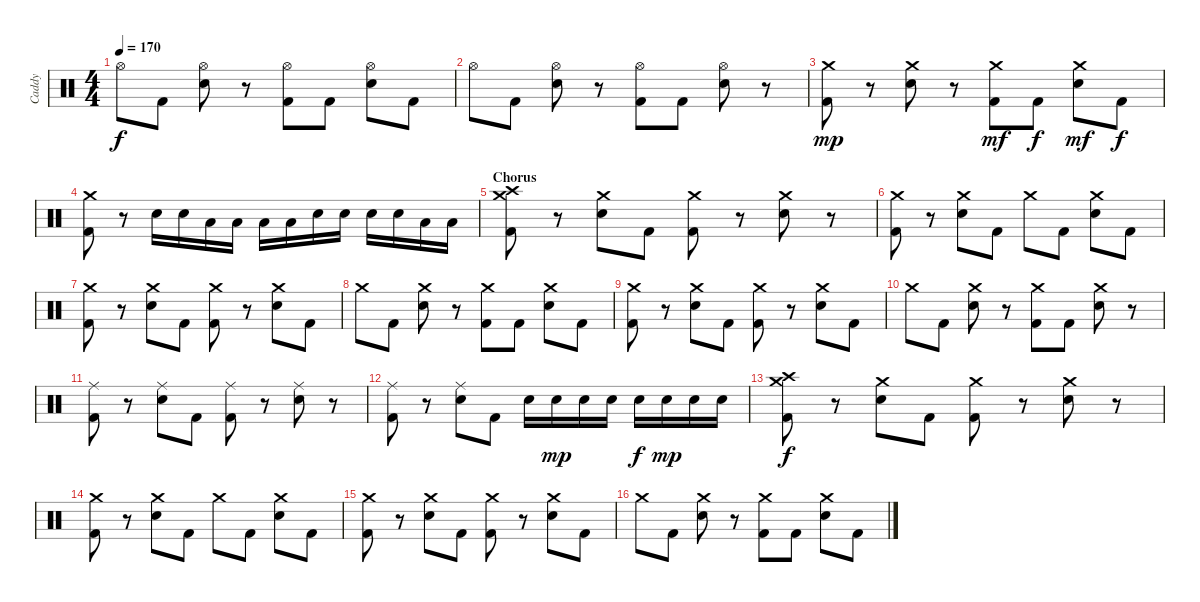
\track ("Caddy" "Caddy") {instrument percussion}
\staff {score}
\articulation defaults
\ts (4 4)
\tempo 170
\clef neutral
\ks c "Hi-Hat (open)".8{dy f} "Kick (hit) 2".8
("Hi-Hat (open)" "Electric Snare (hit)").8 r.8 ("Hi-Hat (open)" "Kick (hit) 2").8 "Kick (hit) 2".8 ("Hi-Hat (open)" "Electric Snare (hit)").8 "Kick (hit) 2".8 |
"Hi-Hat (open)".8 "Kick (hit) 2".8 ("Hi-Hat (open)" "Electric Snare (hit)").8 r.8 ("Hi-Hat (open)" "Kick (hit) 2").8 "Kick (hit) 2".8 ("Hi-Hat (open)" "Electric Snare (hit)").8 r.8 |
("Crash medium (hit)" "Kick (hit) 2").8{dy mp} r.8 ("Crash medium (hit)" "Electric Snare (hit)").8 r.8 ("Crash medium (hit)" "Kick (hit) 2").8{dy mf} "Kick (hit) 2".8{dy f} ("Crash medium (hit)" "Electric Snare (hit)").8{dy mf} "Kick (hit) 2".8{dy f} |
("Crash medium (hit)" "Kick (hit) 2").8 r.8 "Electric Snare (hit)".16 "Electric Snare (hit)".16 "Low Tom (hit)".16 "Low Tom (hit)".16 "Low Tom (hit)".16 "Low Tom (hit)".16 "Electric Snare (hit)".16 "Electric Snare (hit)".16 "Electric Snare (hit)".16 "Electric Snare (hit)".16 "Low Floor Tom (hit)".16 "Low Floor Tom (hit)".16 |
\section ("" "Chorus")
("Crash medium (hit)" "Crash high (hit)" "Kick (hit) 2").8 r.8 ("Crash medium (hit)" "Electric Snare (hit)").8 "Kick (hit) 2".8 ("Crash medium (hit)" "Kick (hit) 2").8 r.8 ("Crash medium (hit)" "Electric Snare (hit)").8 r.8 |
("Crash medium (hit)" "Kick (hit) 2").8 r.8 ("Crash medium (hit)" "Electric Snare (hit)").8 "Kick (hit) 2".8 "Crash medium (hit)".8 "Kick (hit) 2".8 ("Crash medium (hit)" "Electric Snare (hit)").8 "Kick (hit) 2".8 |
("Crash medium (hit)" "Kick (hit) 2").8 r.8 ("Crash medium (hit)" "Electric Snare (hit)").8 "Kick (hit) 2".8 ("Crash medium (hit)" "Kick (hit) 2").8 r.8 ("Crash medium (hit)" "Electric Snare (hit)").8 "Kick (hit) 2".8 |
"Crash medium (hit)".8 "Kick (hit) 2".8 ("Crash medium (hit)" "Electric Snare (hit)").8 r.8 ("Crash medium (hit)" "Kick (hit) 2").8 "Kick (hit) 2".8 ("Crash medium (hit)" "Electric Snare (hit)").8 "Kick (hit) 2".8 |
("Crash medium (hit)" "Kick (hit) 2").8 r.8 ("Crash medium (hit)" "Electric Snare (hit)").8 "Kick (hit) 2".8 ("Crash medium (hit)" "Kick (hit) 2").8 r.8 ("Crash medium (hit)" "Electric Snare (hit)").8 "Kick (hit) 2".8 |
"Crash medium (hit)".8 "Kick (hit) 2".8 ("Crash medium (hit)" "Electric Snare (hit)").8 r.8 ("Crash medium (hit)" "Kick (hit) 2").8 "Kick (hit) 2".8 ("Crash medium (hit)" "Electric Snare (hit)").8 r.8 |
("Ride (middle)" "Kick (hit) 2").8 r.8 ("Ride (middle)" "Electric Snare (hit)").8 "Kick (hit) 2".8 ("Ride (middle)" "Kick (hit) 2").8 r.8 ("Ride (middle)" "Electric Snare (hit)").8 r.8 |
("Ride (middle)" "Kick (hit) 2").8 r.8 ("Ride (middle)" "Electric Snare (hit)").8 "Kick (hit) 2".8 "Electric Snare (hit)".16 "Electric Snare (hit)".16{dy mp} "Electric Snare (hit)".16 "Electric Snare (hit)".16 "Electric Snare (hit)".16{dy f} "Electric Snare (hit)".16{dy mp} "Electric Snare (hit)".16 "Electric Snare (hit)".16 |
("Crash medium (hit)" "Crash high (hit)" "Kick (hit) 2").8{dy f} r.8 ("Crash medium (hit)" "Electric Snare (hit)").8 "Kick (hit) 2".8 ("Crash medium (hit)" "Kick (hit) 2").8 r.8 ("Crash medium (hit)" "Electric Snare (hit)").8 r.8 |
("Crash medium (hit)" "Kick (hit) 2").8 r.8 ("Crash medium (hit)" "Electric Snare (hit)").8 "Kick (hit) 2".8 "Crash medium (hit)".8 "Kick (hit) 2".8 ("Crash medium (hit)" "Electric Snare (hit)").8 "Kick (hit) 2".8 |
("Crash medium (hit)" "Kick (hit) 2").8 r.8 ("Crash medium (hit)" "Electric Snare (hit)").8 "Kick (hit) 2".8 ("Crash medium (hit)" "Kick (hit) 2").8 r.8 ("Crash medium (hit)" "Electric Snare (hit)").8 "Kick (hit) 2".8 |
"Crash medium (hit)".8 "Kick (hit) 2".8 ("Crash medium (hit)" "Electric Snare (hit)").8 r.8 ("Crash medium (hit)" "Kick (hit) 2").8 "Kick (hit) 2".8 ("Crash medium (hit)" "Electric Snare (hit)").8 "Kick (hit) 2".8
